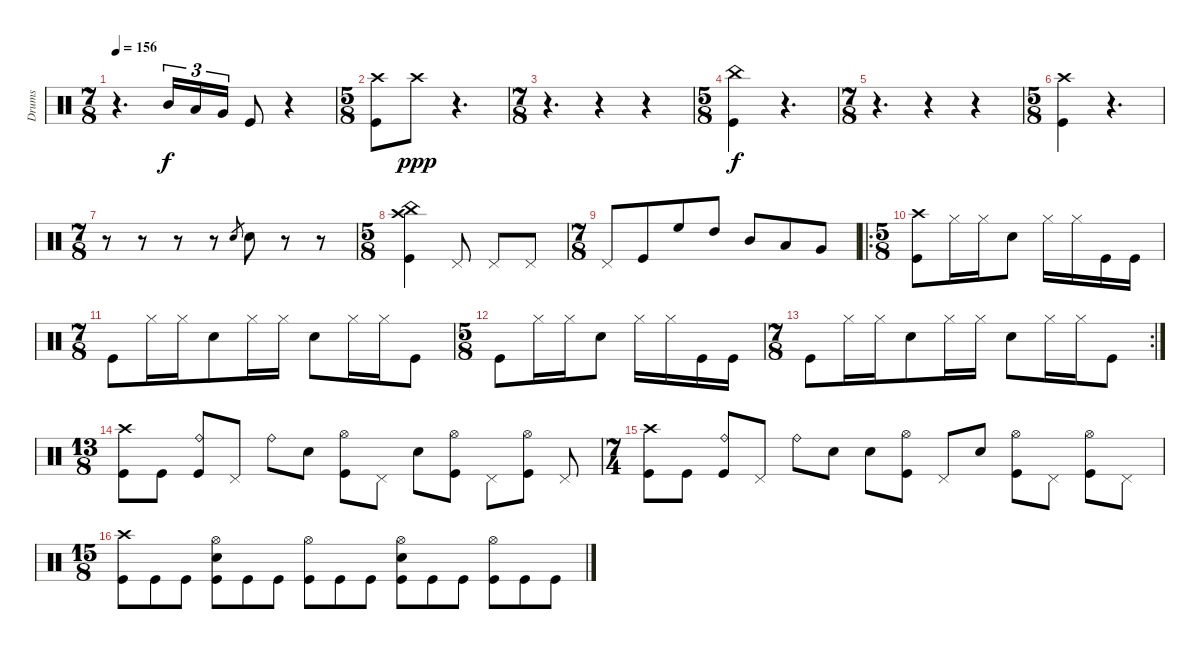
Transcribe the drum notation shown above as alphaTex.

\track ("Drums" "Drums") {instrument percussion}
\staff {score}
\articulation defaults
\ts (7 8)
\tempo 156
\clef neutral
\ks c
r.4{d dy f} "Mid Tom (hit)".16{tu (3 2)} "Low Tom (hit)".16{tu (3 2)} "Very Low Tom (hit)".16{tu (3 2)} "Kick (hit)".8 r.4 |
\ts (5 8)
("Crash high (hit)" "Kick (hit)").8 "Crash high (hit)".8{dy ppp} r.4{d} |
\ts (7 8)
r.4{d} r.4 r.4 |
\ts (5 8)
("China (hit)" "Kick (hit)").4{dy f} r.4{d} |
\ts (7 8)
r.4{d} r.4 r.4 |
\ts (5 8)
("Crash high (hit)" "Kick (hit)").4 r.4{d} |
\ts (7 8)
r.8 r.8 r.8 r.8 "Electric Snare (hit)".8{gr} "Electric Snare (hit)".8 r.8 r.8 |
\ts (5 8)
("China (hit)" "Crash high (hit)" "Kick (hit)").4 "Pedal Hi-Hat (hit)".8 "Pedal Hi-Hat (hit)".8 "Pedal Hi-Hat (hit)".8 |
\ts (7 8)
"Pedal Hi-Hat (hit)".8 "Kick (hit)".8 "High Floor Tom (hit)".8 "High Tom (hit)".8 "Mid Tom (hit)".8 "Low Tom (hit)".8 "Very Low Tom (hit)".8 |
\ro
\ts (5 8)
("Crash high (hit)" "Kick (hit)").8 "Hi-Hat (closed)".16 "Hi-Hat (closed)".16 "Electric Snare (hit)".8 "Hi-Hat (closed)".16 "Hi-Hat (closed)".16 "Kick (hit)".16 "Kick (hit)".16 |
\ts (7 8)
"Kick (hit)".8 "Hi-Hat (closed)".16 "Hi-Hat (closed)".16 "Electric Snare (hit)".8 "Hi-Hat (closed)".16 "Hi-Hat (closed)".16 "Electric Snare (hit)".8 "Hi-Hat (closed)".16 "Hi-Hat (closed)".16 "Kick (hit)".8 |
\ts (5 8)
"Kick (hit)".8 "Hi-Hat (closed)".16 "Hi-Hat (closed)".16 "Electric Snare (hit)".8 "Hi-Hat (closed)".16 "Hi-Hat (closed)".16 "Kick (hit)".16 "Kick (hit)".16 |
\rc 2
\ts (7 8)
"Kick (hit)".8 "Hi-Hat (closed)".16 "Hi-Hat (closed)".16 "Electric Snare (hit)".8 "Hi-Hat (closed)".16 "Hi-Hat (closed)".16 "Electric Snare (hit)".8 "Hi-Hat (closed)".16 "Hi-Hat (closed)".16 "Kick (hit)".8 |
\ts (13 8)
("Crash high (hit)" "Kick (hit)").8 "Kick (hit)".8 ("Ride (bell)" "Kick (hit)").8 "Pedal Hi-Hat (hit)".8 "Ride (bell)".8 "Electric Snare (hit)".8 ("Hi-Hat (open)" "Kick (hit)").8 "Pedal Hi-Hat (hit)".8 "Electric Snare (hit)".8 ("Hi-Hat (open)" "Kick (hit)").8 "Pedal Hi-Hat (hit)".8 ("Hi-Hat (open)" "Kick (hit)").8 "Pedal Hi-Hat (hit)".8 |
\ts (7 4)
("Crash high (hit)" "Kick (hit)").8 "Kick (hit)".8 ("Ride (bell)" "Kick (hit)").8 "Pedal Hi-Hat (hit)".8 "Ride (bell)".8 "Electric Snare (hit)".8 "Electric Snare (hit)".8 ("Hi-Hat (open)" "Kick (hit)").8 "Pedal Hi-Hat (hit)".8 "Electric Snare (hit)".8 ("Hi-Hat (open)" "Kick (hit)").8 "Pedal Hi-Hat (hit)".8 ("Hi-Hat (open)" "Kick (hit)").8 "Pedal Hi-Hat (hit)".8 |
\ts (15 8)
("Crash high (hit)" "Kick (hit)").8 "Kick (hit)".8 "Kick (hit)".8 ("Hi-Hat (open)" "Electric Snare (hit)" "Kick (hit)").8 "Kick (hit)".8 "Kick (hit)".8 ("Hi-Hat (open)" "Kick (hit)").8 "Kick (hit)".8 "Kick (hit)".8 ("Hi-Hat (open)" "Electric Snare (hit)" "Kick (hit)").8 "Kick (hit)".8 "Kick (hit)".8 ("Hi-Hat (open)" "Kick (hit)").8 "Kick (hit)".8 "Kick (hit)".8
